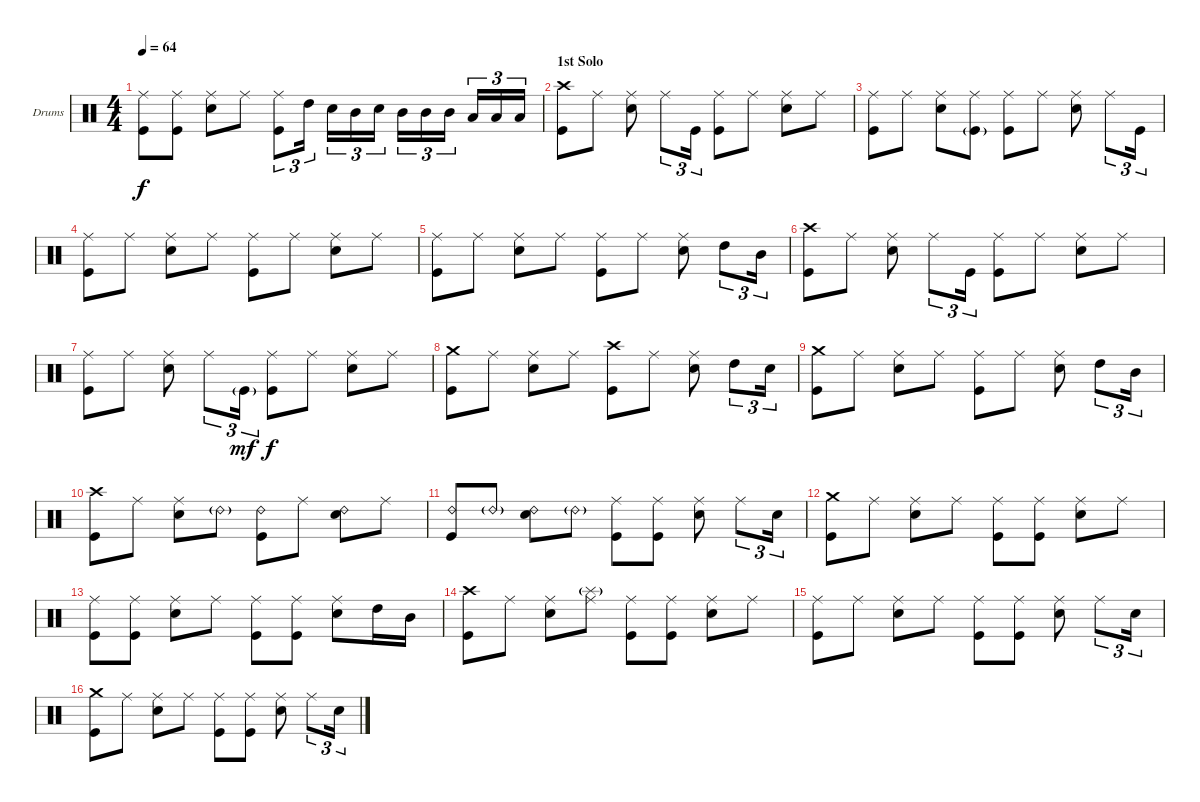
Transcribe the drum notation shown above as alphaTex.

\bracketExtendMode groupsimilarinstruments
\firstSystemTrackNameOrientation horizontal
\otherSystemsTrackNameOrientation horizontal
\track ("Drumkit" "Drums") {instrument percussion}
\staff {score}
\articulation defaults
\ts (4 4)
\tempo 64
\clef neutral
\ks c
("Ride (middle)" "Kick (hit)").8{dy f} ("Ride (middle)" "Kick (hit)").8 ("Ride (middle)" "Snare (hit) 2").8 "Ride (middle)".8 ("Ride (middle)" "Kick (hit)").8{tu (3 2)} "High Tom (hit)".16{tu (3 2)} "Snare (hit) 2".16{tu (3 2)} "Mid Tom (hit)".16{tu (3 2)} "Snare (hit) 2".16{tu (3 2)} "Mid Tom (hit)".16{tu (3 2)} "Mid Tom (hit)".16{tu (3 2)} "Mid Tom (hit)".16{tu (3 2)} "Low Tom (hit)".16{tu (3 2)} "Low Tom (hit)".16{tu (3 2)} "Low Tom (hit)".16{tu (3 2)} |
\section ("" "1st Solo")
("Crash high (hit)" "Kick (hit)").8 "Ride (middle)".8 ("Ride (middle)" "Snare (hit) 2").8 "Ride (middle)".8{tu (3 2)} "Kick (hit)".16{tu (3 2)} ("Ride (middle)" "Kick (hit)").8 "Ride (middle)".8 ("Ride (middle)" "Snare (hit) 2").8 "Ride (middle)".8 |
("Ride (middle)" "Kick (hit)").8 "Ride (middle)".8 ("Ride (middle)" "Snare (hit) 2").8 ("Ride (middle)" "Kick (hit)"{g}).8 ("Ride (middle)" "Kick (hit)").8 "Ride (middle)".8 ("Ride (middle)" "Snare (hit) 2").8 "Ride (middle)".8{tu (3 2)} "Kick (hit)".16{tu (3 2)} |
("Ride (middle)" "Kick (hit)").8 "Ride (middle)".8 ("Ride (middle)" "Snare (hit) 2").8 "Ride (middle)".8 ("Ride (middle)" "Kick (hit)").8 "Ride (middle)".8 ("Ride (middle)" "Snare (hit) 2").8 "Ride (middle)".8 |
("Ride (middle)" "Kick (hit)").8 "Ride (middle)".8 ("Ride (middle)" "Snare (hit) 2").8 "Ride (middle)".8 ("Ride (middle)" "Kick (hit)").8 "Ride (middle)".8 ("Ride (middle)" "Snare (hit) 2").8 "High Tom (hit)".8{tu (3 2)} "Mid Tom (hit)".16{tu (3 2)} |
("Crash high (hit)" "Kick (hit)").8 "Ride (middle)".8 ("Ride (middle)" "Snare (hit) 2").8 "Ride (middle)".8{tu (3 2)} "Kick (hit)".16{tu (3 2)} ("Ride (middle)" "Kick (hit)").8 "Ride (middle)".8 ("Ride (middle)" "Snare (hit) 2").8 "Ride (middle)".8 |
("Ride (middle)" "Kick (hit)").8 "Ride (middle)".8 ("Ride (middle)" "Snare (hit) 2").8 "Ride (middle)".8{tu (3 2)} "Kick (hit)"{g}.16{tu (3 2) dy mf} ("Ride (middle)" "Kick (hit)").8{dy f} "Ride (middle)".8 ("Ride (middle)" "Snare (hit) 2").8 "Ride (middle)".8 |
("Crash medium (hit)" "Kick (hit)").8 "Ride (middle)".8 ("Ride (middle)" "Snare (hit) 2").8 "Ride (middle)".8 ("Crash high (hit)" "Kick (hit)").8 "Ride (middle)".8 ("Ride (middle)" "Snare (hit) 2").8 "High Tom (hit)".8{tu (3 2)} "Snare (hit) 2".16{tu (3 2)} |
("Crash medium (hit)" "Kick (hit)").8 "Ride (middle)".8 ("Ride (middle)" "Snare (hit) 2").8 "Ride (middle)".8 ("Ride (middle)" "Kick (hit)").8 "Ride (middle)".8 ("Ride (middle)" "Snare (hit) 2").8 "High Tom (hit)".8{tu (3 2)} "Mid Tom (hit)".16{tu (3 2)} |
("Crash high (hit)" "Kick (hit)").8 "Ride (middle)".8 ("Ride (middle)" "Snare (hit) 2").8 "Ride (bell) 2"{g}.8 ("Ride (bell) 2" "Kick (hit)").8 "Ride (middle)".8 ("Ride (bell) 2" "Snare (hit) 2").8 "Ride (middle)".8 |
("Ride (bell) 2" "Kick (hit)").8 "Ride (bell) 2"{g}.8 ("Ride (bell) 2" "Snare (hit) 2").8 "Ride (bell) 2"{g}.8 ("Ride (middle)" "Kick (hit)").8 ("Ride (middle)" "Kick (hit)").8 ("Ride (middle)" "Snare (hit) 2").8 "Ride (middle)".8{tu (3 2)} "Snare (hit) 2".16{tu (3 2)} |
("Crash medium (hit)" "Kick (hit)").8 "Ride (middle)".8 ("Ride (middle)" "Snare (hit) 2").8 "Ride (middle)".8 ("Ride (middle)" "Kick (hit)").8 ("Ride (middle)" "Kick (hit)").8 ("Ride (middle)" "Snare (hit) 2").8 "Ride (middle)".8 |
("Ride (middle)" "Kick (hit)").8 ("Ride (middle)" "Kick (hit)").8 ("Ride (middle)" "Snare (hit) 2").8 "Ride (middle)".8 ("Ride (middle)" "Kick (hit)").8 ("Ride (middle)" "Kick (hit)").8 ("Ride (middle)" "Snare (hit) 2").8 "High Tom (hit)".16 "Mid Tom (hit)".16 |
("Crash high (hit)" "Kick (hit)").8 "Ride (middle)".8 ("Ride (middle)" "Snare (hit) 2").8 ("Splash (hit)"{g} "Ride (middle)").8 ("Ride (middle)" "Kick (hit)").8 ("Ride (middle)" "Kick (hit)").8 ("Ride (middle)" "Snare (hit) 2").8 "Ride (middle)".8 |
("Ride (middle)" "Kick (hit)").8 "Ride (middle)".8 ("Ride (middle)" "Snare (hit) 2").8 "Ride (middle)".8 ("Ride (middle)" "Kick (hit)").8 ("Ride (middle)" "Kick (hit)").8 ("Ride (middle)" "Snare (hit) 2").8 "Ride (middle)".8{tu (3 2)} "Snare (hit) 2".16{tu (3 2)} |
("Crash medium (hit)" "Kick (hit)").8 "Ride (middle)".8 ("Ride (middle)" "Snare (hit) 2").8 "Ride (middle)".8 ("Ride (middle)" "Kick (hit)").8 ("Ride (middle)" "Kick (hit)").8 ("Ride (middle)" "Snare (hit) 2").8 "Ride (middle)".8{tu (3 2)} "Snare (hit) 2".16{tu (3 2)}
